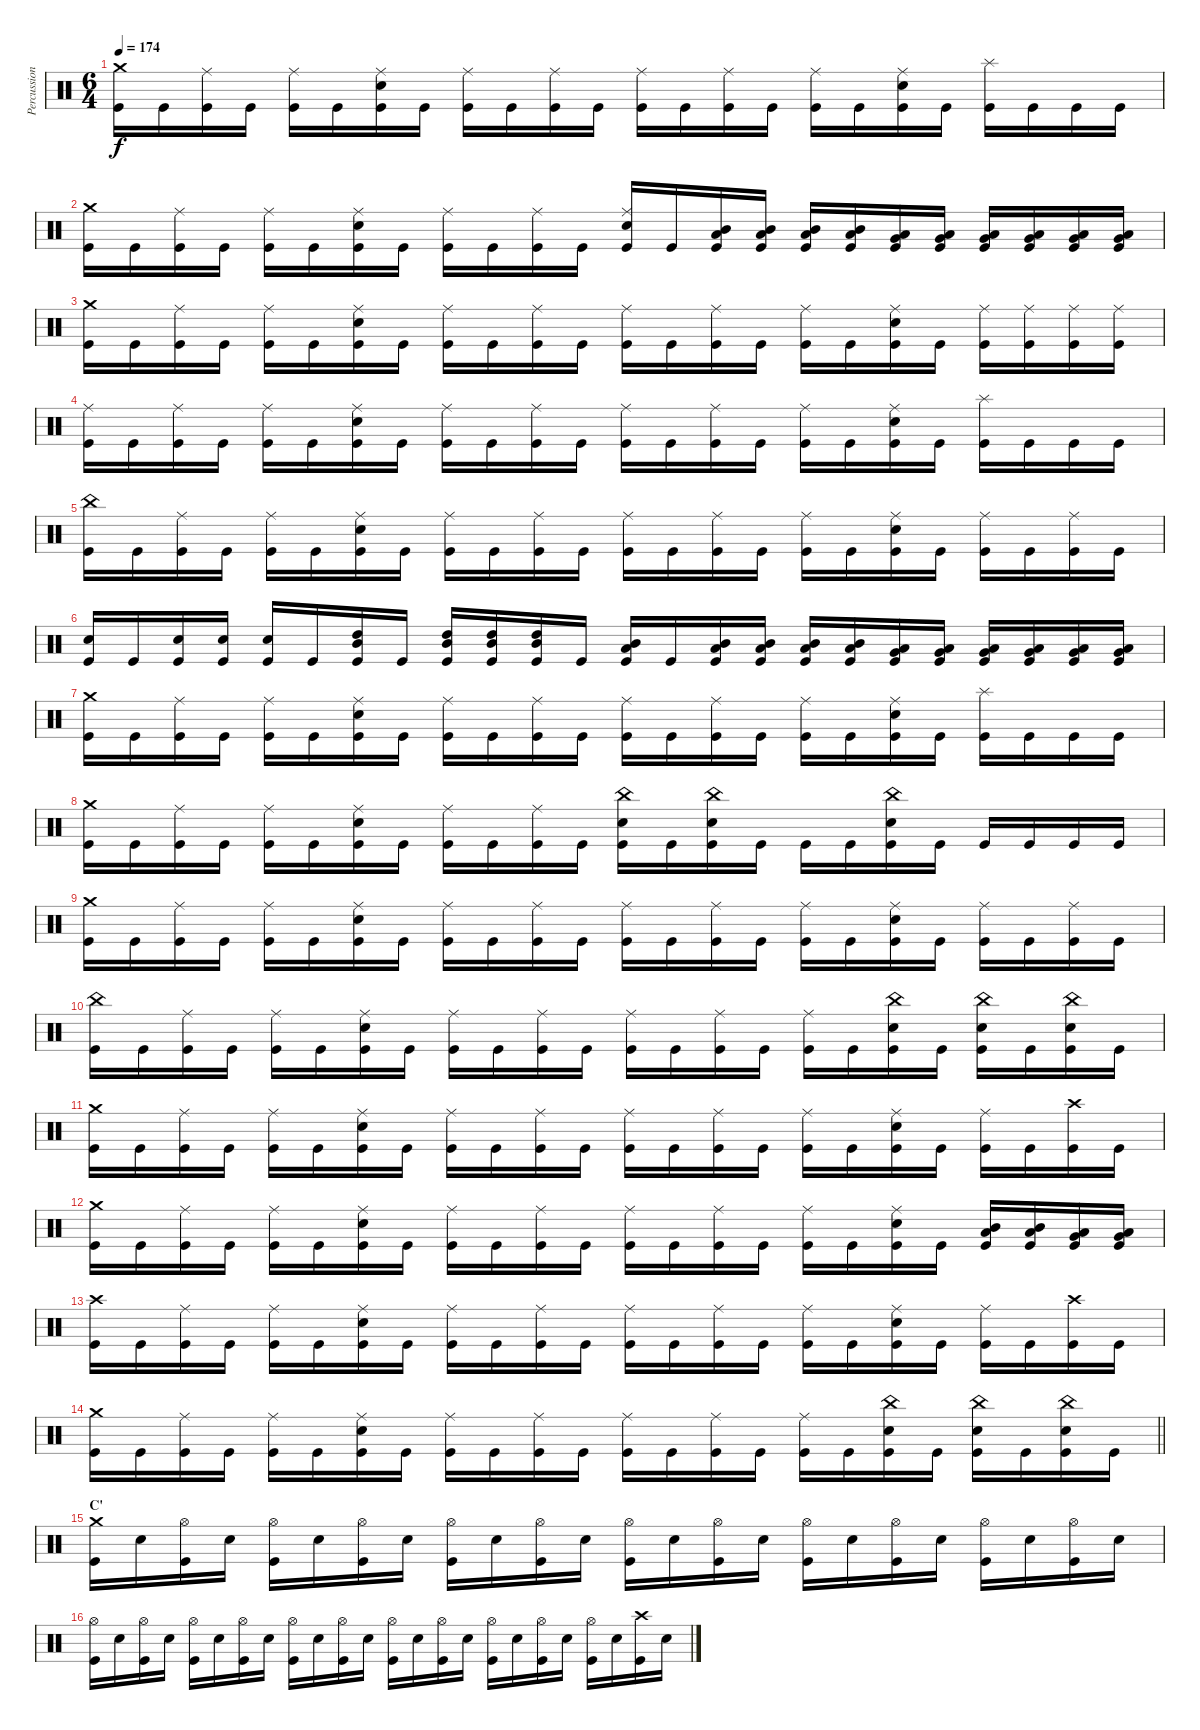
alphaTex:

\track ("Percussion" "Percussion") {instrument percussion}
\staff {score}
\articulation defaults
\ts (6 4)
\tempo 174
\clef neutral
\ks c
("Crash medium (hit)" "Kick (hit)").16{dy f} "Kick (hit)".16 ("Ride (middle)" "Kick (hit)").16 "Kick (hit)".16 ("Ride (middle)" "Kick (hit)").16 "Kick (hit)".16 ("Ride (middle)" "Snare (hit) 2" "Kick (hit)").16 "Kick (hit)".16 ("Ride (middle)" "Kick (hit)").16 "Kick (hit)".16 ("Ride (middle)" "Kick (hit)").16 "Kick (hit)".16 ("Ride (middle)" "Kick (hit)").16 "Kick (hit)".16 ("Ride (middle)" "Kick (hit)").16 "Kick (hit)".16 ("Ride (middle)" "Kick (hit)").16 "Kick (hit)".16 ("Ride (middle)" "Snare (hit) 2" "Kick (hit)").16 "Kick (hit)".16 ("Splash (hit)" "Kick (hit)").16 "Kick (hit)".16 "Kick (hit)".16 "Kick (hit)".16 |
("Crash medium (hit)" "Kick (hit)").16 "Kick (hit)".16 ("Ride (middle)" "Kick (hit)").16 "Kick (hit)".16 ("Ride (middle)" "Kick (hit)").16 "Kick (hit)".16 ("Ride (middle)" "Snare (hit) 2" "Kick (hit)").16 "Kick (hit)".16 ("Ride (middle)" "Kick (hit)").16 "Kick (hit)".16 ("Ride (middle)" "Kick (hit)").16 "Kick (hit)".16 ("Ride (middle)" "Snare (hit) 2" "Kick (hit)").16 "Kick (hit)".16 ("Mid Tom (hit)" "Low Tom (hit)" "Kick (hit)").16 ("Mid Tom (hit)" "Low Tom (hit)" "Kick (hit)").16 ("Mid Tom (hit)" "Low Tom (hit)" "Kick (hit)").16 ("Mid Tom (hit)" "Low Tom (hit)" "Kick (hit)").16 ("Low Tom (hit)" "Very Low Tom (hit)" "Kick (hit)").16 ("Low Tom (hit)" "Very Low Tom (hit)" "Kick (hit)").16 ("Low Tom (hit)" "Very Low Tom (hit)" "Kick (hit)").16 ("Low Tom (hit)" "Very Low Tom (hit)" "Kick (hit)").16 ("Very Low Tom (hit)" "Low Floor Tom (hit)" "Kick (hit)").16 ("Very Low Tom (hit)" "Low Floor Tom (hit)" "Kick (hit)").16 |
("Crash medium (hit)" "Kick (hit)").16 "Kick (hit)".16 ("Ride (middle)" "Kick (hit)").16 "Kick (hit)".16 ("Ride (middle)" "Kick (hit)").16 "Kick (hit)".16 ("Ride (middle)" "Snare (hit) 2" "Kick (hit)").16 "Kick (hit)".16 ("Ride (middle)" "Kick (hit)").16 "Kick (hit)".16 ("Ride (middle)" "Kick (hit)").16 "Kick (hit)".16 ("Ride (middle)" "Kick (hit)").16 "Kick (hit)".16 ("Ride (middle)" "Kick (hit)").16 "Kick (hit)".16 ("Ride (middle)" "Kick (hit)").16 "Kick (hit)".16 ("Ride (middle)" "Snare (hit) 2" "Kick (hit)").16 "Kick (hit)".16 ("Ride (middle)" "Kick (hit)").16 ("Ride (middle)" "Kick (hit)").16 ("Ride (middle)" "Kick (hit)").16 ("Ride (middle)" "Kick (hit)").16 |
("Ride (middle)" "Kick (hit)").16 "Kick (hit)".16 ("Ride (middle)" "Kick (hit)").16 "Kick (hit)".16 ("Ride (middle)" "Kick (hit)").16 "Kick (hit)".16 ("Ride (middle)" "Snare (hit) 2" "Kick (hit)").16 "Kick (hit)".16 ("Ride (middle)" "Kick (hit)").16 "Kick (hit)".16 ("Ride (middle)" "Kick (hit)").16 "Kick (hit)".16 ("Ride (middle)" "Kick (hit)").16 "Kick (hit)".16 ("Ride (middle)" "Kick (hit)").16 "Kick (hit)".16 ("Ride (middle)" "Kick (hit)").16 "Kick (hit)".16 ("Ride (middle)" "Snare (hit) 2" "Kick (hit)").16 "Kick (hit)".16 ("Splash (hit)" "Kick (hit)").16 "Kick (hit)".16 "Kick (hit)".16 "Kick (hit)".16 |
("China (hit)" "Kick (hit)").16 "Kick (hit)".16 ("Ride (middle)" "Kick (hit)").16 "Kick (hit)".16 ("Ride (middle)" "Kick (hit)").16 "Kick (hit)".16 ("Ride (middle)" "Snare (hit) 2" "Kick (hit)").16 "Kick (hit)".16 ("Ride (middle)" "Kick (hit)").16 "Kick (hit)".16 ("Ride (middle)" "Kick (hit)").16 "Kick (hit)".16 ("Ride (middle)" "Kick (hit)").16 "Kick (hit)".16 ("Ride (middle)" "Kick (hit)").16 "Kick (hit)".16 ("Ride (middle)" "Kick (hit)").16 "Kick (hit)".16 ("Ride (middle)" "Snare (hit) 2" "Kick (hit)").16 "Kick (hit)".16 ("Ride (middle)" "Kick (hit)").16 "Kick (hit)".16 ("Ride (middle)" "Kick (hit)").16 "Kick (hit)".16 |
("Snare (hit) 2" "Kick (hit)").16 "Kick (hit)".16 ("Snare (hit) 2" "Kick (hit)").16 ("Snare (hit) 2" "Kick (hit)").16 ("Snare (hit) 2" "Kick (hit)").16 "Kick (hit)".16 ("High Tom (hit)" "Mid Tom (hit)" "Kick (hit)").16 "Kick (hit)".16 ("High Tom (hit)" "Mid Tom (hit)" "Kick (hit)").16 ("High Tom (hit)" "Mid Tom (hit)" "Kick (hit)").16 ("High Tom (hit)" "Mid Tom (hit)" "Kick (hit)").16 "Kick (hit)".16 ("Mid Tom (hit)" "Low Tom (hit)" "Kick (hit)").16 "Kick (hit)".16 ("Mid Tom (hit)" "Low Tom (hit)" "Kick (hit)").16 ("Mid Tom (hit)" "Low Tom (hit)" "Kick (hit)").16 ("Mid Tom (hit)" "Low Tom (hit)" "Kick (hit)").16 ("Mid Tom (hit)" "Low Tom (hit)" "Kick (hit)").16 ("Low Tom (hit)" "Very Low Tom (hit)" "Kick (hit)").16 ("Low Tom (hit)" "Very Low Tom (hit)" "Kick (hit)").16 ("Low Tom (hit)" "Very Low Tom (hit)" "Kick (hit)").16 ("Very Low Tom (hit)" "Low Floor Tom (hit)" "Kick (hit)").16 ("Very Low Tom (hit)" "Low Floor Tom (hit)" "Kick (hit)").16 ("Very Low Tom (hit)" "Low Floor Tom (hit)" "Kick (hit)").16 |
("Crash medium (hit)" "Kick (hit)").16 "Kick (hit)".16 ("Ride (middle)" "Kick (hit)").16 "Kick (hit)".16 ("Ride (middle)" "Kick (hit)").16 "Kick (hit)".16 ("Ride (middle)" "Snare (hit) 2" "Kick (hit)").16 "Kick (hit)".16 ("Ride (middle)" "Kick (hit)").16 "Kick (hit)".16 ("Ride (middle)" "Kick (hit)").16 "Kick (hit)".16 ("Ride (middle)" "Kick (hit)").16 "Kick (hit)".16 ("Ride (middle)" "Kick (hit)").16 "Kick (hit)".16 ("Ride (middle)" "Kick (hit)").16 "Kick (hit)".16 ("Ride (middle)" "Snare (hit) 2" "Kick (hit)").16 "Kick (hit)".16 ("Splash (hit)" "Kick (hit)").16 "Kick (hit)".16 "Kick (hit)".16 "Kick (hit)".16 |
("Crash medium (hit)" "Kick (hit)").16 "Kick (hit)".16 ("Ride (middle)" "Kick (hit)").16 "Kick (hit)".16 ("Ride (middle)" "Kick (hit)").16 "Kick (hit)".16 ("Ride (middle)" "Snare (hit) 2" "Kick (hit)").16 "Kick (hit)".16 ("Ride (middle)" "Kick (hit)").16 "Kick (hit)".16 ("Ride (middle)" "Kick (hit)").16 "Kick (hit)".16 ("China (hit)" "Snare (hit) 2" "Kick (hit)").16 "Kick (hit)".16 ("China (hit)" "Snare (hit) 2" "Kick (hit)").16 "Kick (hit)".16 "Kick (hit)".16 "Kick (hit)".16 ("China (hit)" "Snare (hit) 2" "Kick (hit)").16 "Kick (hit)".16 "Kick (hit)".16 "Kick (hit)".16 "Kick (hit)".16 "Kick (hit)".16 |
("Crash medium (hit)" "Kick (hit)").16 "Kick (hit)".16 ("Ride (middle)" "Kick (hit)").16 "Kick (hit)".16 ("Ride (middle)" "Kick (hit)").16 "Kick (hit)".16 ("Ride (middle)" "Snare (hit) 2" "Kick (hit)").16 "Kick (hit)".16 ("Ride (middle)" "Kick (hit)").16 "Kick (hit)".16 ("Ride (middle)" "Kick (hit)").16 "Kick (hit)".16 ("Ride (middle)" "Kick (hit)").16 "Kick (hit)".16 ("Ride (middle)" "Kick (hit)").16 "Kick (hit)".16 ("Ride (middle)" "Kick (hit)").16 "Kick (hit)".16 ("Ride (middle)" "Snare (hit) 2" "Kick (hit)").16 "Kick (hit)".16 ("Ride (middle)" "Kick (hit)").16 "Kick (hit)".16 ("Ride (middle)" "Kick (hit)").16 "Kick (hit)".16 |
("China (hit)" "Kick (hit)").16 "Kick (hit)".16 ("Ride (middle)" "Kick (hit)").16 "Kick (hit)".16 ("Ride (middle)" "Kick (hit)").16 "Kick (hit)".16 ("Ride (middle)" "Snare (hit) 2" "Kick (hit)").16 "Kick (hit)".16 ("Ride (middle)" "Kick (hit)").16 "Kick (hit)".16 ("Ride (middle)" "Kick (hit)").16 "Kick (hit)".16 ("Ride (middle)" "Kick (hit)").16 "Kick (hit)".16 ("Ride (middle)" "Kick (hit)").16 "Kick (hit)".16 ("Ride (middle)" "Kick (hit)").16 "Kick (hit)".16 ("China (hit)" "Snare (hit) 2" "Kick (hit)").16 "Kick (hit)".16 ("China (hit)" "Snare (hit) 2" "Kick (hit)").16 "Kick (hit)".16 ("China (hit)" "Snare (hit) 2" "Kick (hit)").16 "Kick (hit)".16 |
("Crash medium (hit)" "Kick (hit)").16 "Kick (hit)".16 ("Ride (middle)" "Kick (hit)").16 "Kick (hit)".16 ("Ride (middle)" "Kick (hit)").16 "Kick (hit)".16 ("Ride (middle)" "Snare (hit) 2" "Kick (hit)").16 "Kick (hit)".16 ("Ride (middle)" "Kick (hit)").16 "Kick (hit)".16 ("Ride (middle)" "Kick (hit)").16 "Kick (hit)".16 ("Ride (middle)" "Kick (hit)").16 "Kick (hit)".16 ("Ride (middle)" "Kick (hit)").16 "Kick (hit)".16 ("Ride (middle)" "Kick (hit)").16 "Kick (hit)".16 ("Ride (middle)" "Snare (hit) 2" "Kick (hit)").16 "Kick (hit)".16 ("Ride (middle)" "Kick (hit)").16 "Kick (hit)".16 ("Crash high (hit)" "Kick (hit)").16 "Kick (hit)".16 |
("Crash medium (hit)" "Kick (hit)").16 "Kick (hit)".16 ("Ride (middle)" "Kick (hit)").16 "Kick (hit)".16 ("Ride (middle)" "Kick (hit)").16 "Kick (hit)".16 ("Ride (middle)" "Snare (hit) 2" "Kick (hit)").16 "Kick (hit)".16 ("Ride (middle)" "Kick (hit)").16 "Kick (hit)".16 ("Ride (middle)" "Kick (hit)").16 "Kick (hit)".16 ("Ride (middle)" "Kick (hit)").16 "Kick (hit)".16 ("Ride (middle)" "Kick (hit)").16 "Kick (hit)".16 ("Ride (middle)" "Kick (hit)").16 "Kick (hit)".16 ("Ride (middle)" "Snare (hit) 2" "Kick (hit)").16 "Kick (hit)".16 ("Mid Tom (hit)" "Low Tom (hit)" "Kick (hit)").16 ("Mid Tom (hit)" "Low Tom (hit)" "Kick (hit)").16 ("Low Tom (hit)" "Very Low Tom (hit)" "Kick (hit)").16 ("Low Tom (hit)" "Very Low Tom (hit)" "Kick (hit)").16 |
("Crash high (hit)" "Kick (hit)").16 "Kick (hit)".16 ("Ride (middle)" "Kick (hit)").16 "Kick (hit)".16 ("Ride (middle)" "Kick (hit)").16 "Kick (hit)".16 ("Ride (middle)" "Snare (hit) 2" "Kick (hit)").16 "Kick (hit)".16 ("Ride (middle)" "Kick (hit)").16 "Kick (hit)".16 ("Ride (middle)" "Kick (hit)").16 "Kick (hit)".16 ("Ride (middle)" "Kick (hit)").16 "Kick (hit)".16 ("Ride (middle)" "Kick (hit)").16 "Kick (hit)".16 ("Ride (middle)" "Kick (hit)").16 "Kick (hit)".16 ("Ride (middle)" "Snare (hit) 2" "Kick (hit)").16 "Kick (hit)".16 ("Ride (middle)" "Kick (hit)").16 "Kick (hit)".16 ("Crash high (hit)" "Kick (hit)").16 "Kick (hit)".16 |
\barLineRight lightlight
("Crash medium (hit)" "Kick (hit)").16 "Kick (hit)".16 ("Ride (middle)" "Kick (hit)").16 "Kick (hit)".16 ("Ride (middle)" "Kick (hit)").16 "Kick (hit)".16 ("Ride (middle)" "Snare (hit) 2" "Kick (hit)").16 "Kick (hit)".16 ("Ride (middle)" "Kick (hit)").16 "Kick (hit)".16 ("Ride (middle)" "Kick (hit)").16 "Kick (hit)".16 ("Ride (middle)" "Kick (hit)").16 "Kick (hit)".16 ("Ride (middle)" "Kick (hit)").16 "Kick (hit)".16 ("Ride (middle)" "Kick (hit)").16 "Kick (hit)".16 ("China (hit)" "Snare (hit) 2" "Kick (hit)").16 "Kick (hit)".16 ("China (hit)" "Snare (hit) 2" "Kick (hit)").16 "Kick (hit)".16 ("China (hit)" "Snare (hit) 2" "Kick (hit)").16 "Kick (hit)".16 |
\section ("" "C'")
("Crash medium (hit)" "Kick (hit)").16 "Snare (hit) 2".16 ("Hi-Hat (open)" "Kick (hit)").16 "Snare (hit) 2".16 ("Hi-Hat (open)" "Kick (hit)").16 "Snare (hit) 2".16 ("Hi-Hat (open)" "Kick (hit)").16 "Snare (hit) 2".16 ("Hi-Hat (open)" "Kick (hit)").16 "Snare (hit) 2".16 ("Hi-Hat (open)" "Kick (hit)").16 "Snare (hit) 2".16 ("Hi-Hat (open)" "Kick (hit)").16 "Snare (hit) 2".16 ("Hi-Hat (open)" "Kick (hit)").16 "Snare (hit) 2".16 ("Hi-Hat (open)" "Kick (hit)").16 "Snare (hit) 2".16 ("Hi-Hat (open)" "Kick (hit)").16 "Snare (hit) 2".16 ("Hi-Hat (open)" "Kick (hit)").16 "Snare (hit) 2".16 ("Hi-Hat (open)" "Kick (hit)").16 "Snare (hit) 2".16 |
("Hi-Hat (open)" "Kick (hit)").16 "Snare (hit) 2".16 ("Hi-Hat (open)" "Kick (hit)").16 "Snare (hit) 2".16 ("Hi-Hat (open)" "Kick (hit)").16 "Snare (hit) 2".16 ("Hi-Hat (open)" "Kick (hit)").16 "Snare (hit) 2".16 ("Hi-Hat (open)" "Kick (hit)").16 "Snare (hit) 2".16 ("Hi-Hat (open)" "Kick (hit)").16 "Snare (hit) 2".16 ("Hi-Hat (open)" "Kick (hit)").16 "Snare (hit) 2".16 ("Hi-Hat (open)" "Kick (hit)").16 "Snare (hit) 2".16 ("Hi-Hat (open)" "Kick (hit)").16 "Snare (hit) 2".16 ("Hi-Hat (open)" "Kick (hit)").16 "Snare (hit) 2".16 ("Hi-Hat (open)" "Kick (hit)").16 "Snare (hit) 2".16 ("Crash high (hit)" "Kick (hit)").16 "Snare (hit) 2".16
